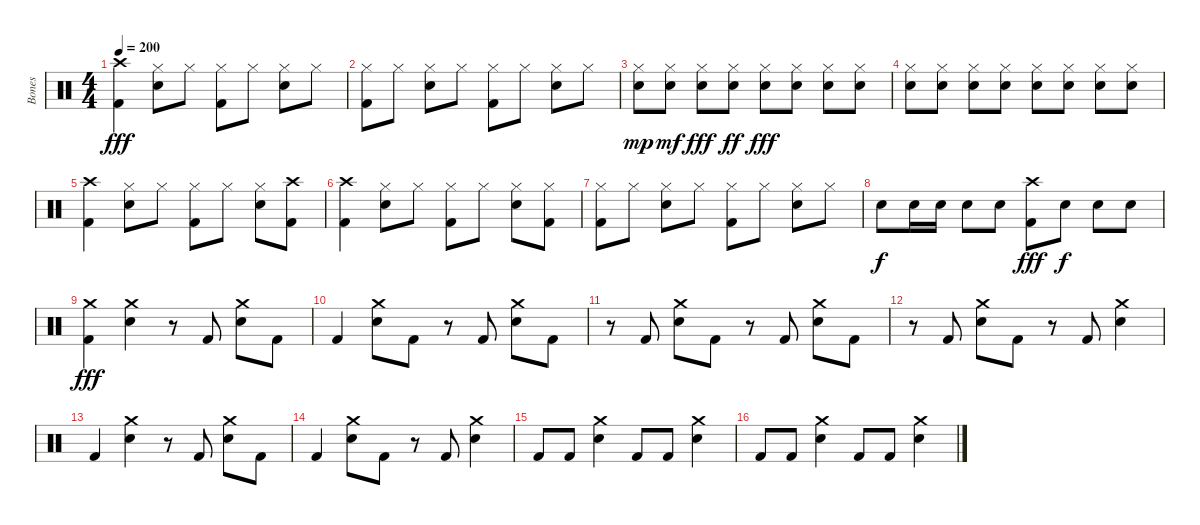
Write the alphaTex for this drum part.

\track ("Bones " "Bones ") {instrument percussion}
\staff {score}
\articulation defaults
\ts (4 4)
\tempo 200
\clef neutral
\ks c
("Crash high (hit)" "Kick (hit) 2").4{dy fff} ("Hi-Hat (closed)" "Snare (hit) 2").8 "Hi-Hat (closed)".8 ("Hi-Hat (closed)" "Kick (hit) 2").8 "Hi-Hat (closed)".8 ("Hi-Hat (closed)" "Snare (hit) 2").8 "Hi-Hat (closed)".8 |
("Hi-Hat (closed)" "Kick (hit) 2").8 "Hi-Hat (closed)".8 ("Hi-Hat (closed)" "Snare (hit) 2").8 "Hi-Hat (closed)".8 ("Hi-Hat (closed)" "Kick (hit) 2").8 "Hi-Hat (closed)".8 ("Hi-Hat (closed)" "Snare (hit) 2").8 "Hi-Hat (closed)".8 |
("Hi-Hat (closed)" "Snare (hit) 2").8{dy mp} ("Hi-Hat (closed)" "Snare (hit) 2").8{dy mf} ("Hi-Hat (closed)" "Snare (hit) 2").8{dy fff} ("Hi-Hat (closed)" "Snare (hit) 2").8{dy ff} ("Hi-Hat (closed)" "Snare (hit) 2").8{dy fff} ("Hi-Hat (closed)" "Snare (hit) 2").8 ("Hi-Hat (closed)" "Snare (hit) 2").8 ("Hi-Hat (closed)" "Snare (hit) 2").8 |
("Hi-Hat (closed)" "Snare (hit) 2").8 ("Hi-Hat (closed)" "Snare (hit) 2").8 ("Hi-Hat (closed)" "Snare (hit) 2").8 ("Hi-Hat (closed)" "Snare (hit) 2").8 ("Hi-Hat (closed)" "Snare (hit) 2").8 ("Hi-Hat (closed)" "Snare (hit) 2").8 ("Hi-Hat (closed)" "Snare (hit) 2").8 ("Hi-Hat (closed)" "Snare (hit) 2").8 |
("Crash high (hit)" "Kick (hit) 2").4 ("Hi-Hat (closed)" "Snare (hit) 2").8 "Hi-Hat (closed)".8 ("Hi-Hat (closed)" "Kick (hit) 2").8 "Hi-Hat (closed)".8 ("Hi-Hat (closed)" "Snare (hit) 2").8 ("Crash high (hit)" "Kick (hit) 2").8 |
("Crash high (hit)" "Kick (hit) 2").4 ("Hi-Hat (closed)" "Snare (hit) 2").8 "Hi-Hat (closed)".8 ("Hi-Hat (closed)" "Kick (hit) 2").8 "Hi-Hat (closed)".8 ("Hi-Hat (closed)" "Snare (hit) 2").8 ("Hi-Hat (closed)" "Kick (hit) 2").8 |
("Hi-Hat (closed)" "Kick (hit) 2").8 "Hi-Hat (closed)".8 ("Hi-Hat (closed)" "Snare (hit) 2").8 "Hi-Hat (closed)".8 ("Hi-Hat (closed)" "Kick (hit) 2").8 "Hi-Hat (closed)".8 ("Hi-Hat (closed)" "Snare (hit) 2").8 "Hi-Hat (closed)".8 |
"Snare (hit) 2".8{dy f} "Snare (hit) 2".16 "Snare (hit) 2".16 "Snare (hit) 2".8 "Snare (hit) 2".8 ("Crash high (hit)" "Kick (hit) 2").8{dy fff} "Snare (hit) 2".8{dy f} "Snare (hit) 2".8 "Snare (hit) 2".8 |
("Crash medium (hit)" "Kick (hit) 2").4{dy fff} ("Crash medium (hit)" "Snare (hit) 2").4 r.8 "Kick (hit) 2".8 ("Crash medium (hit)" "Snare (hit) 2").8 "Kick (hit) 2".8 |
"Kick (hit) 2".4 ("Crash medium (hit)" "Snare (hit) 2").8 "Kick (hit) 2".8 r.8 "Kick (hit) 2".8 ("Crash medium (hit)" "Snare (hit) 2").8 "Kick (hit) 2".8 |
r.8 "Kick (hit) 2".8 ("Crash medium (hit)" "Snare (hit) 2").8 "Kick (hit) 2".8 r.8 "Kick (hit) 2".8 ("Crash medium (hit)" "Snare (hit) 2").8 "Kick (hit) 2".8 |
r.8 "Kick (hit) 2".8 ("Crash medium (hit)" "Snare (hit) 2").8 "Kick (hit) 2".8 r.8 "Kick (hit) 2".8 ("Crash medium (hit)" "Snare (hit) 2").4 |
"Kick (hit) 2".4 ("Crash medium (hit)" "Snare (hit) 2").4 r.8 "Kick (hit) 2".8 ("Crash medium (hit)" "Snare (hit) 2").8 "Kick (hit) 2".8 |
"Kick (hit) 2".4 ("Crash medium (hit)" "Snare (hit) 2").8 "Kick (hit) 2".8 r.8 "Kick (hit) 2".8 ("Crash medium (hit)" "Snare (hit) 2").4 |
"Kick (hit) 2".8 "Kick (hit) 2".8 ("Crash medium (hit)" "Snare (hit) 2").4 "Kick (hit) 2".8 "Kick (hit) 2".8 ("Crash medium (hit)" "Snare (hit) 2").4 |
"Kick (hit) 2".8 "Kick (hit) 2".8 ("Crash medium (hit)" "Snare (hit) 2").4 "Kick (hit) 2".8 "Kick (hit) 2".8 ("Crash medium (hit)" "Snare (hit) 2").4
